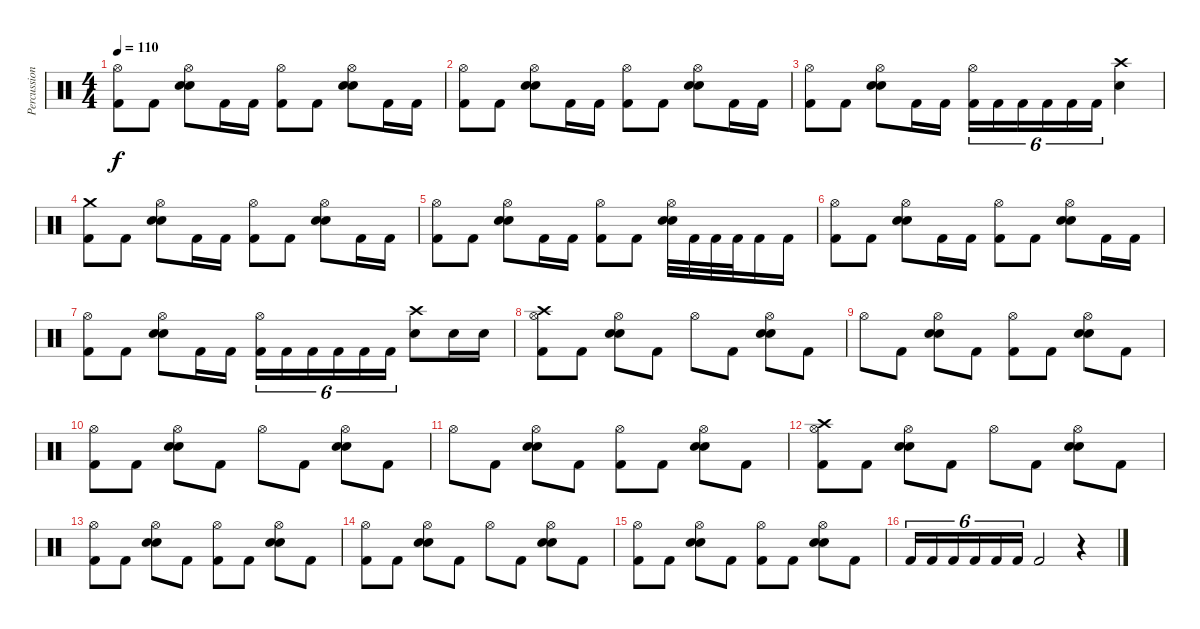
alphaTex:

\track ("Percussion" "Percussion") {instrument percussion}
\staff {score}
\articulation defaults
\ts (4 4)
\tempo 110
\clef neutral
\ks c
("Hi-Hat (open)" "Kick (hit) 2").8{dy f} "Kick (hit) 2".8 ("Hi-Hat (open)" "Electric Snare (hit)" "Electric Snare (hit)").8 "Kick (hit) 2".16 "Kick (hit) 2".16 ("Hi-Hat (open)" "Kick (hit) 2").8 "Kick (hit) 2".8 ("Hi-Hat (open)" "Electric Snare (hit)" "Electric Snare (hit)").8 "Kick (hit) 2".16 "Kick (hit) 2".16 |
("Hi-Hat (open)" "Kick (hit) 2").8 "Kick (hit) 2".8 ("Hi-Hat (open)" "Electric Snare (hit)" "Electric Snare (hit)").8 "Kick (hit) 2".16 "Kick (hit) 2".16 ("Hi-Hat (open)" "Kick (hit) 2").8 "Kick (hit) 2".8 ("Hi-Hat (open)" "Electric Snare (hit)" "Electric Snare (hit)").8 "Kick (hit) 2".16 "Kick (hit) 2".16 |
("Hi-Hat (open)" "Kick (hit) 2").8 "Kick (hit) 2".8 ("Hi-Hat (open)" "Electric Snare (hit)" "Electric Snare (hit)").8 "Kick (hit) 2".16 "Kick (hit) 2".16 ("Hi-Hat (open)" "Kick (hit) 2").16{tu (6 4)} "Kick (hit) 2".16{tu (6 4)} "Kick (hit) 2".16{tu (6 4)} "Kick (hit) 2".16{tu (6 4)} "Kick (hit) 2".16{tu (6 4)} "Kick (hit) 2".16{tu (6 4)} ("Crash high (hit)" "Electric Snare (hit)").4 |
("Crash medium (hit)" "Kick (hit) 2").8 "Kick (hit) 2".8 ("Hi-Hat (open)" "Electric Snare (hit)" "Electric Snare (hit)").8 "Kick (hit) 2".16 "Kick (hit) 2".16 ("Hi-Hat (open)" "Kick (hit) 2").8 "Kick (hit) 2".8 ("Hi-Hat (open)" "Electric Snare (hit)" "Electric Snare (hit)").8 "Kick (hit) 2".16 "Kick (hit) 2".16 |
("Hi-Hat (open)" "Kick (hit) 2").8 "Kick (hit) 2".8 ("Hi-Hat (open)" "Electric Snare (hit)" "Electric Snare (hit)").8 "Kick (hit) 2".16 "Kick (hit) 2".16 ("Hi-Hat (open)" "Kick (hit) 2").8 "Kick (hit) 2".8 ("Hi-Hat (open)" "Electric Snare (hit)" "Electric Snare (hit)").32 "Kick (hit) 2".32 "Kick (hit) 2".32 "Kick (hit) 2".32 "Kick (hit) 2".16 "Kick (hit) 2".16 |
("Hi-Hat (open)" "Kick (hit) 2").8 "Kick (hit) 2".8 ("Hi-Hat (open)" "Electric Snare (hit)" "Electric Snare (hit)").8 "Kick (hit) 2".16 "Kick (hit) 2".16 ("Hi-Hat (open)" "Kick (hit) 2").8 "Kick (hit) 2".8 ("Hi-Hat (open)" "Electric Snare (hit)" "Electric Snare (hit)").8 "Kick (hit) 2".16 "Kick (hit) 2".16 |
("Hi-Hat (open)" "Kick (hit) 2").8 "Kick (hit) 2".8 ("Hi-Hat (open)" "Electric Snare (hit)" "Electric Snare (hit)").8 "Kick (hit) 2".16 "Kick (hit) 2".16 ("Hi-Hat (open)" "Kick (hit) 2").16{tu (6 4)} "Kick (hit) 2".16{tu (6 4)} "Kick (hit) 2".16{tu (6 4)} "Kick (hit) 2".16{tu (6 4)} "Kick (hit) 2".16{tu (6 4)} "Kick (hit) 2".16{tu (6 4)} ("Crash high (hit)" "Electric Snare (hit)").8 "Electric Snare (hit)".16 "Electric Snare (hit)".16 |
("Hi-Hat (open)" "Crash high (hit)" "Kick (hit) 2").8 "Kick (hit) 2".8 ("Hi-Hat (open)" "Electric Snare (hit)" "Electric Snare (hit)").8 "Kick (hit) 2".8 "Hi-Hat (open)".8 "Kick (hit) 2".8 ("Hi-Hat (open)" "Electric Snare (hit)" "Electric Snare (hit)").8 "Kick (hit) 2".8 |
"Hi-Hat (open)".8 "Kick (hit) 2".8 ("Hi-Hat (open)" "Electric Snare (hit)" "Electric Snare (hit)").8 "Kick (hit) 2".8 ("Hi-Hat (open)" "Kick (hit) 2").8 "Kick (hit) 2".8 ("Hi-Hat (open)" "Electric Snare (hit)" "Electric Snare (hit)").8 "Kick (hit) 2".8 |
("Hi-Hat (open)" "Kick (hit) 2").8 "Kick (hit) 2".8 ("Hi-Hat (open)" "Electric Snare (hit)" "Electric Snare (hit)").8 "Kick (hit) 2".8 "Hi-Hat (open)".8 "Kick (hit) 2".8 ("Hi-Hat (open)" "Electric Snare (hit)" "Electric Snare (hit)").8 "Kick (hit) 2".8 |
"Hi-Hat (open)".8 "Kick (hit) 2".8 ("Hi-Hat (open)" "Electric Snare (hit)" "Electric Snare (hit)").8 "Kick (hit) 2".8 ("Hi-Hat (open)" "Kick (hit) 2").8 "Kick (hit) 2".8 ("Hi-Hat (open)" "Electric Snare (hit)" "Electric Snare (hit)").8 "Kick (hit) 2".8 |
("Hi-Hat (open)" "Crash high (hit)" "Kick (hit) 2").8 "Kick (hit) 2".8 ("Hi-Hat (open)" "Electric Snare (hit)" "Electric Snare (hit)").8 "Kick (hit) 2".8 "Hi-Hat (open)".8 "Kick (hit) 2".8 ("Hi-Hat (open)" "Electric Snare (hit)" "Electric Snare (hit)").8 "Kick (hit) 2".8 |
("Hi-Hat (open)" "Kick (hit) 2").8 "Kick (hit) 2".8 ("Hi-Hat (open)" "Electric Snare (hit)" "Electric Snare (hit)").8 "Kick (hit) 2".8 ("Hi-Hat (open)" "Kick (hit) 2").8 "Kick (hit) 2".8 ("Hi-Hat (open)" "Electric Snare (hit)" "Electric Snare (hit)").8 "Kick (hit) 2".8 |
("Hi-Hat (open)" "Kick (hit) 2").8 "Kick (hit) 2".8 ("Hi-Hat (open)" "Electric Snare (hit)" "Electric Snare (hit)").8 "Kick (hit) 2".8 "Hi-Hat (open)".8 "Kick (hit) 2".8 ("Hi-Hat (open)" "Electric Snare (hit)" "Electric Snare (hit)").8 "Kick (hit) 2".8 |
("Hi-Hat (open)" "Kick (hit) 2").8 "Kick (hit) 2".8 ("Hi-Hat (open)" "Electric Snare (hit)" "Electric Snare (hit)").8 "Kick (hit) 2".8 ("Hi-Hat (open)" "Kick (hit) 2").8 "Kick (hit) 2".8 ("Hi-Hat (open)" "Electric Snare (hit)" "Electric Snare (hit)").8 "Kick (hit) 2".8 |
"Kick (hit) 2".16{tu (6 4)} "Kick (hit) 2".16{tu (6 4)} "Kick (hit) 2".16{tu (6 4)} "Kick (hit) 2".16{tu (6 4)} "Kick (hit) 2".16{tu (6 4)} "Kick (hit) 2".16{tu (6 4)} "Kick (hit) 2".2 r.4
